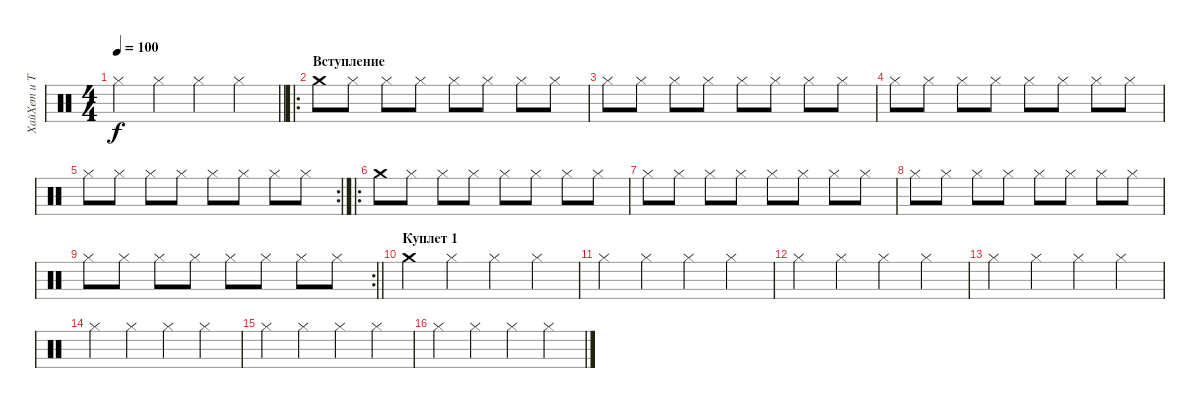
\track ("ХайХет и Тарелка" "ХайХет и Т") {instrument percussion}
\staff {score}
\articulation defaults
\ts (4 4)
\tempo 100
\clef neutral
\barLineRight lightlight
\ks c "Hi-Hat (closed)".4{dy f} "Hi-Hat (closed)".4 "Hi-Hat (closed)".4 "Hi-Hat (closed)".4
|
\ro
\section ("" "Вступление")
"Crash medium (hit)".8 "Hi-Hat (closed)".8 "Hi-Hat (closed)".8 "Hi-Hat (closed)".8 "Hi-Hat (closed)".8 "Hi-Hat (closed)".8 "Hi-Hat (closed)".8 "Hi-Hat (closed)".8 |
"Hi-Hat (closed)".8 "Hi-Hat (closed)".8 "Hi-Hat (closed)".8 "Hi-Hat (closed)".8 "Hi-Hat (closed)".8 "Hi-Hat (closed)".8 "Hi-Hat (closed)".8 "Hi-Hat (closed)".8 |
"Hi-Hat (closed)".8 "Hi-Hat (closed)".8 "Hi-Hat (closed)".8 "Hi-Hat (closed)".8 "Hi-Hat (closed)".8 "Hi-Hat (closed)".8 "Hi-Hat (closed)".8 "Hi-Hat (closed)".8 |
\rc 2 "Hi-Hat (closed)".8 "Hi-Hat (closed)".8 "Hi-Hat (closed)".8 "Hi-Hat (closed)".8 "Hi-Hat (closed)".8 "Hi-Hat (closed)".8 "Hi-Hat (closed)".8 "Hi-Hat (closed)".8
|
\ro "Crash medium (hit)".8 "Hi-Hat (closed)".8 "Hi-Hat (closed)".8 "Hi-Hat (closed)".8 "Hi-Hat (closed)".8 "Hi-Hat (closed)".8 "Hi-Hat (closed)".8 "Hi-Hat (closed)".8
|
"Hi-Hat (closed)".8 "Hi-Hat (closed)".8 "Hi-Hat (closed)".8 "Hi-Hat (closed)".8 "Hi-Hat (closed)".8 "Hi-Hat (closed)".8 "Hi-Hat (closed)".8 "Hi-Hat (closed)".8 |
"Hi-Hat (closed)".8 "Hi-Hat (closed)".8 "Hi-Hat (closed)".8 "Hi-Hat (closed)".8 "Hi-Hat (closed)".8 "Hi-Hat (closed)".8 "Hi-Hat (closed)".8 "Hi-Hat (closed)".8 |
\rc 2
\barLineRight lightlight "Hi-Hat (closed)".8 "Hi-Hat (closed)".8 "Hi-Hat (closed)".8 "Hi-Hat (closed)".8 "Hi-Hat (closed)".8 "Hi-Hat (closed)".8 "Hi-Hat (closed)".8 "Hi-Hat (closed)".8
|
\section ("" "Куплет 1")
"Crash medium (hit)".4 "Hi-Hat (closed)".4 "Hi-Hat (closed)".4 "Hi-Hat (closed)".4 |
"Hi-Hat (closed)".4 "Hi-Hat (closed)".4 "Hi-Hat (closed)".4 "Hi-Hat (closed)".4 |
"Hi-Hat (closed)".4 "Hi-Hat (closed)".4 "Hi-Hat (closed)".4 "Hi-Hat (closed)".4 |
"Hi-Hat (closed)".4 "Hi-Hat (closed)".4 "Hi-Hat (closed)".4 "Hi-Hat (closed)".4 |
"Hi-Hat (closed)".4 "Hi-Hat (closed)".4 "Hi-Hat (closed)".4 "Hi-Hat (closed)".4 |
"Hi-Hat (closed)".4 "Hi-Hat (closed)".4 "Hi-Hat (closed)".4 "Hi-Hat (closed)".4 |
"Hi-Hat (closed)".4 "Hi-Hat (closed)".4 "Hi-Hat (closed)".4 "Hi-Hat (closed)".4
